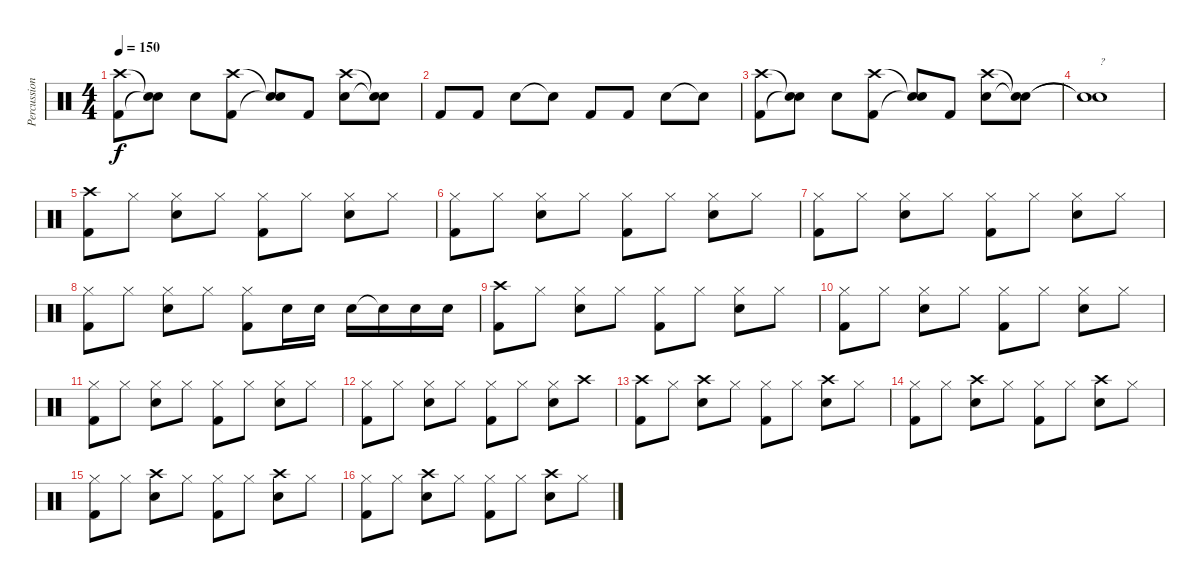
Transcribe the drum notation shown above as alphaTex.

\track ("Percussion" "Percussion") {instrument percussion}
\staff {score}
\articulation defaults
\ts (4 4)
\tempo 150
\clef neutral
\ks c
("Kick (hit) 2" "Crash high (hit)").8{dy f} ("Snare (hit)"{t} "Snare (hit)"{t}).8 "Snare (hit) 2".8 ("Kick (hit) 2" "Crash high (hit)").8 ("Snare (hit)"{t} "Snare (hit)"{t}).8 "Kick (hit) 2".8 ("Snare (hit) 2" "Crash high (hit)").8 ("Snare (hit)"{t} "Snare (hit)"{t}).8 |
"Kick (hit) 2".8 "Kick (hit) 2".8 "Snare (hit) 2".8 "Snare (hit)"{t}.8 "Kick (hit) 2".8 "Kick (hit) 2".8 "Snare (hit) 2".8 "Snare (hit)"{t}.8 |
("Kick (hit) 2" "Crash high (hit)").8 ("Snare (hit)"{t} "Snare (hit)"{t}).8 "Snare (hit) 2".8 ("Kick (hit) 2" "Crash high (hit)").8 ("Snare (hit)"{t} "Snare (hit)"{t}).8 "Kick (hit) 2".8 ("Snare (hit) 2" "Crash high (hit)").8 ("Snare (hit)"{t} "Snare (hit)"{t}).8 |
("Snare (hit)"{t} "Snare (hit)"{t}).1{txt "?"} |
("Kick (hit) 2" "Crash high (hit)").8 "Hi-Hat (closed)".8 ("Snare (hit) 2" "Hi-Hat (closed)").8 "Hi-Hat (closed)".8 ("Kick (hit) 2" "Hi-Hat (closed)").8 "Hi-Hat (closed)".8 ("Snare (hit) 2" "Hi-Hat (closed)").8 "Hi-Hat (closed)".8 |
("Kick (hit) 2" "Hi-Hat (closed)").8 "Hi-Hat (closed)".8 ("Snare (hit) 2" "Hi-Hat (closed)").8 "Hi-Hat (closed)".8 ("Kick (hit) 2" "Hi-Hat (closed)").8 "Hi-Hat (closed)".8 ("Snare (hit) 2" "Hi-Hat (closed)").8 "Hi-Hat (closed)".8 |
("Kick (hit) 2" "Hi-Hat (closed)").8 "Hi-Hat (closed)".8 ("Snare (hit) 2" "Hi-Hat (closed)").8 "Hi-Hat (closed)".8 ("Kick (hit) 2" "Hi-Hat (closed)").8 "Hi-Hat (closed)".8 ("Snare (hit) 2" "Hi-Hat (closed)").8 "Hi-Hat (closed)".8 |
("Kick (hit) 2" "Hi-Hat (closed)").8 "Hi-Hat (closed)".8 ("Snare (hit) 2" "Hi-Hat (closed)").8 "Hi-Hat (closed)".8 ("Kick (hit) 2" "Hi-Hat (closed)").8 "Snare (hit) 2".16 "Snare (hit) 2".16 "Snare (hit) 2".16 "Snare (hit)"{t}.16 "Snare (hit) 2".16 "Snare (hit) 2".16 |
("Kick (hit) 2" "Crash high (hit)").8 "Hi-Hat (closed)".8 ("Snare (hit) 2" "Hi-Hat (closed)").8 "Hi-Hat (closed)".8 ("Kick (hit) 2" "Hi-Hat (closed)").8 "Hi-Hat (closed)".8 ("Snare (hit) 2" "Hi-Hat (closed)").8 "Hi-Hat (closed)".8 |
("Kick (hit) 2" "Hi-Hat (closed)").8 "Hi-Hat (closed)".8 ("Snare (hit) 2" "Hi-Hat (closed)").8 "Hi-Hat (closed)".8 ("Kick (hit) 2" "Hi-Hat (closed)").8 "Hi-Hat (closed)".8 ("Snare (hit) 2" "Hi-Hat (closed)").8 "Hi-Hat (closed)".8 |
("Kick (hit) 2" "Hi-Hat (closed)").8 "Hi-Hat (closed)".8 ("Snare (hit) 2" "Hi-Hat (closed)").8 "Hi-Hat (closed)".8 ("Kick (hit) 2" "Hi-Hat (closed)").8 "Hi-Hat (closed)".8 ("Snare (hit) 2" "Hi-Hat (closed)").8 "Hi-Hat (closed)".8 |
("Kick (hit) 2" "Hi-Hat (closed)").8 "Hi-Hat (closed)".8 ("Snare (hit) 2" "Hi-Hat (closed)").8 "Hi-Hat (closed)".8 ("Kick (hit) 2" "Hi-Hat (closed)").8 "Hi-Hat (closed)".8 ("Snare (hit) 2" "Hi-Hat (closed)").8 "Crash high (hit)".8 |
("Kick (hit) 2" "Crash high (hit)").8 "Hi-Hat (closed)".8 ("Snare (hit) 2" "Crash high (hit)").8 "Hi-Hat (closed)".8 ("Kick (hit) 2" "Hi-Hat (closed)").8 "Hi-Hat (closed)".8 ("Snare (hit) 2" "Crash high (hit)").8 "Hi-Hat (closed)".8 |
("Kick (hit) 2" "Hi-Hat (closed)").8 "Hi-Hat (closed)".8 ("Snare (hit) 2" "Crash high (hit)").8 "Hi-Hat (closed)".8 ("Kick (hit) 2" "Hi-Hat (closed)").8 "Hi-Hat (closed)".8 ("Snare (hit) 2" "Crash high (hit)").8 "Hi-Hat (closed)".8 |
("Kick (hit) 2" "Hi-Hat (closed)").8 "Hi-Hat (closed)".8 ("Snare (hit) 2" "Crash high (hit)").8 "Hi-Hat (closed)".8 ("Kick (hit) 2" "Hi-Hat (closed)").8 "Hi-Hat (closed)".8 ("Snare (hit) 2" "Crash high (hit)").8 "Hi-Hat (closed)".8 |
("Kick (hit) 2" "Hi-Hat (closed)").8 "Hi-Hat (closed)".8 ("Snare (hit) 2" "Crash high (hit)").8 "Hi-Hat (closed)".8 ("Kick (hit) 2" "Hi-Hat (closed)").8 "Hi-Hat (closed)".8 ("Snare (hit) 2" "Crash high (hit)").8 "Hi-Hat (closed)".8
